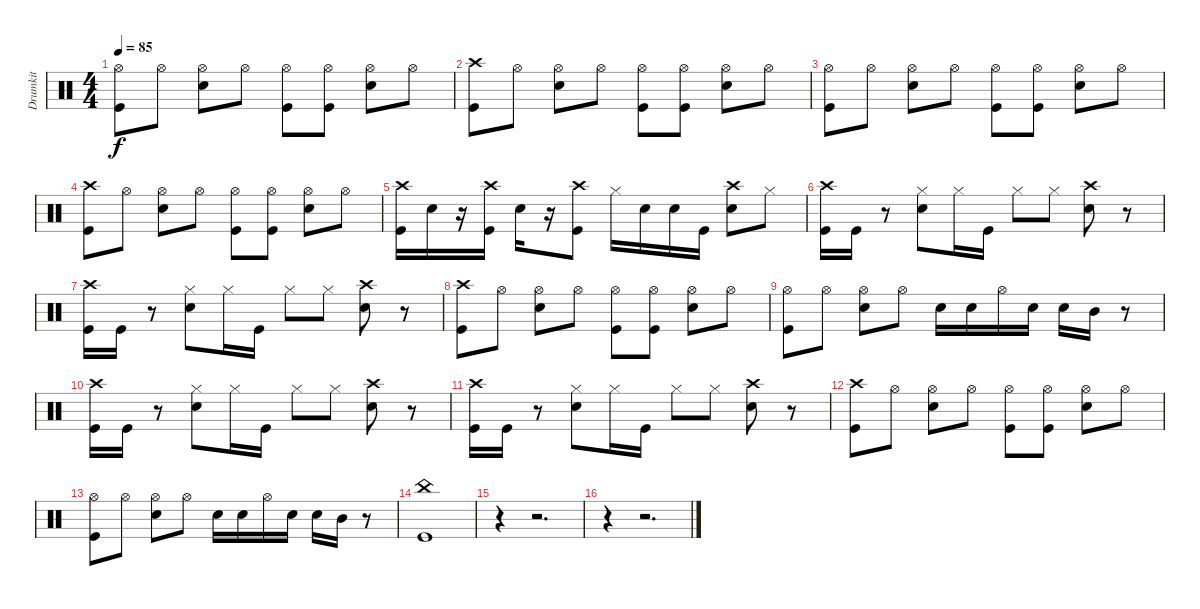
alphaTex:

\track ("Drumkit" "Drumkit") {instrument percussion}
\staff {score}
\articulation defaults
\ts (4 4)
\tempo 85
\clef neutral
\ks c
("Hi-Hat (open)" "Kick (hit)").8{dy f} "Hi-Hat (open)".8 ("Hi-Hat (open)" "Snare (hit) 2").8 "Hi-Hat (open)".8 ("Hi-Hat (open)" "Kick (hit)").8 ("Hi-Hat (open)" "Kick (hit)").8 ("Hi-Hat (open)" "Snare (hit) 2").8 "Hi-Hat (open)".8 |
("Crash high (hit)" "Kick (hit)").8 "Hi-Hat (open)".8 ("Hi-Hat (open)" "Snare (hit) 2").8 "Hi-Hat (open)".8 ("Hi-Hat (open)" "Kick (hit)").8 ("Hi-Hat (open)" "Kick (hit)").8 ("Hi-Hat (open)" "Snare (hit) 2").8 "Hi-Hat (open)".8 |
("Hi-Hat (open)" "Kick (hit)").8 "Hi-Hat (open)".8 ("Hi-Hat (open)" "Snare (hit) 2").8 "Hi-Hat (open)".8 ("Hi-Hat (open)" "Kick (hit)").8 ("Hi-Hat (open)" "Kick (hit)").8 ("Hi-Hat (open)" "Snare (hit) 2").8 "Hi-Hat (open)".8 |
("Crash high (hit)" "Kick (hit)").8 "Hi-Hat (open)".8 ("Hi-Hat (open)" "Snare (hit) 2").8 "Hi-Hat (open)".8 ("Hi-Hat (open)" "Kick (hit)").8 ("Hi-Hat (open)" "Kick (hit)").8 ("Hi-Hat (open)" "Snare (hit) 2").8 "Hi-Hat (open)".8 |
("Crash high (hit)" "Kick (hit)").16 "Snare (hit) 2".16 r.16 ("Crash high (hit)" "Kick (hit)").16 "Snare (hit) 2".16 r.16 ("Crash high (hit)" "Kick (hit)").8 "Hi-Hat (closed)".16 "Snare (hit) 2".16 "Snare (hit) 2".16 "Kick (hit)".16 ("Crash high (hit)" "Snare (hit) 2").8 "Hi-Hat (closed)".8 |
("Crash high (hit)" "Kick (hit)").16 "Kick (hit)".16 r.8 ("Hi-Hat (closed)" "Snare (hit) 2").8 "Hi-Hat (closed)".16 "Kick (hit)".16 "Hi-Hat (closed)".8 "Hi-Hat (closed)".8 ("Crash high (hit)" "Snare (hit) 2").8 r.8 |
("Crash high (hit)" "Kick (hit)").16 "Kick (hit)".16 r.8 ("Hi-Hat (closed)" "Snare (hit) 2").8 "Hi-Hat (closed)".16 "Kick (hit)".16 "Hi-Hat (closed)".8 "Hi-Hat (closed)".8 ("Crash high (hit)" "Snare (hit) 2").8 r.8 |
("Crash high (hit)" "Kick (hit)").8 "Hi-Hat (open)".8 ("Hi-Hat (open)" "Snare (hit) 2").8 "Hi-Hat (open)".8 ("Hi-Hat (open)" "Kick (hit)").8 ("Hi-Hat (open)" "Kick (hit)").8 ("Hi-Hat (open)" "Snare (hit) 2").8 "Hi-Hat (open)".8 |
("Hi-Hat (open)" "Kick (hit)").8 "Hi-Hat (open)".8 ("Hi-Hat (open)" "Snare (hit) 2").8 "Hi-Hat (open)".8 "Snare (hit) 2".16 "Snare (hit) 2".16 "Hi-Hat (open)".16 "Snare (hit) 2".16 "Snare (hit) 2".16 "Mid Tom (hit)".16 r.8 |
("Crash high (hit)" "Kick (hit)").16 "Kick (hit)".16 r.8 ("Hi-Hat (closed)" "Snare (hit) 2").8 "Hi-Hat (closed)".16 "Kick (hit)".16 "Hi-Hat (closed)".8 "Hi-Hat (closed)".8 ("Crash high (hit)" "Snare (hit) 2").8 r.8 |
("Crash high (hit)" "Kick (hit)").16 "Kick (hit)".16 r.8 ("Hi-Hat (closed)" "Snare (hit) 2").8 "Hi-Hat (closed)".16 "Kick (hit)".16 "Hi-Hat (closed)".8 "Hi-Hat (closed)".8 ("Crash high (hit)" "Snare (hit) 2").8 r.8 |
("Crash high (hit)" "Kick (hit)").8 "Hi-Hat (open)".8 ("Hi-Hat (open)" "Snare (hit) 2").8 "Hi-Hat (open)".8 ("Hi-Hat (open)" "Kick (hit)").8 ("Hi-Hat (open)" "Kick (hit)").8 ("Hi-Hat (open)" "Snare (hit) 2").8 "Hi-Hat (open)".8 |
("Hi-Hat (open)" "Kick (hit)").8 "Hi-Hat (open)".8 ("Hi-Hat (open)" "Snare (hit) 2").8 "Hi-Hat (open)".8 "Snare (hit) 2".16 "Snare (hit) 2".16 "Hi-Hat (open)".16 "Snare (hit) 2".16 "Snare (hit) 2".16 "Mid Tom (hit)".16 r.8 |
("China (hit)" "Kick (hit)").1 |
r.4 r.2{d} |
r.4 r.2{d}
